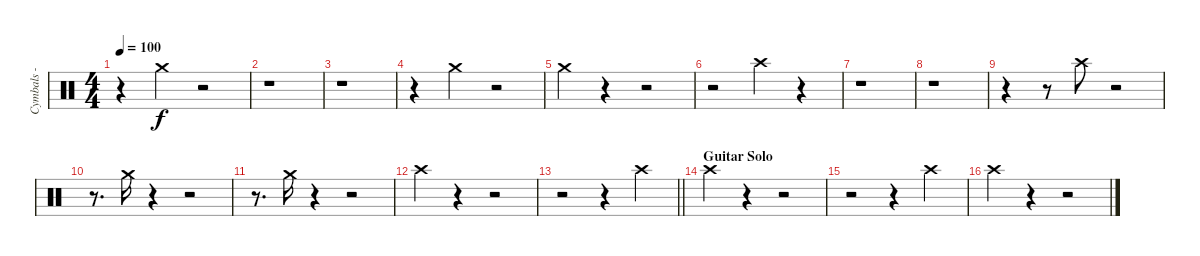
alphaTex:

\track ("Cymbals - crash - center" "Cymbals - ") {instrument percussion}
\staff {score}
\articulation defaults
\ts (4 4)
\tempo 100
\clef neutral
\ks c
r.4{dy f} "Crash medium (hit)".4 r.2 |
r.1 |
r.1 |
r.4 "Crash medium (hit)".4 r.2 |
"Crash medium (hit)".4 r.4 r.2 |
r.2 "Crash high (hit)".4 r.4 |
r.1 |
r.1 |
r.4 r.8 "Crash high (hit)".8 r.2 |
r.8{d} "Crash medium (hit)".16 r.4 r.2 |
r.8{d} "Crash medium (hit)".16 r.4 r.2 |
"Crash high (hit)".4 r.4 r.2 |
\barLineRight lightlight
r.2 r.4 "Crash high (hit)".4 |
\section ("" "Guitar Solo")
"Crash high (hit)".4 r.4 r.2 |
r.2 r.4 "Crash high (hit)".4 |
"Crash high (hit)".4 r.4 r.2
